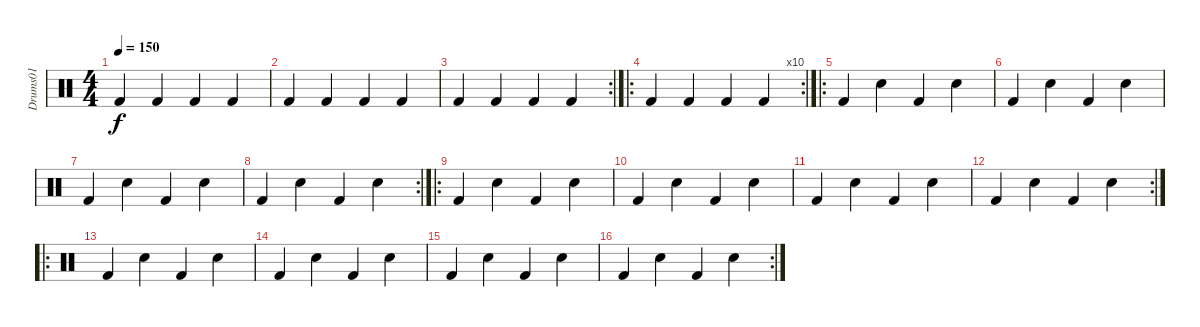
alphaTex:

\track ("Drums01" "Drums01") {instrument percussion}
\staff {score}
\articulation defaults
\ts (4 4)
\tempo 150
\clef neutral
\ks c "Kick (hit) 2".4{dy f} "Kick (hit) 2".4 "Kick (hit) 2".4 "Kick (hit) 2".4
|
"Kick (hit) 2".4 "Kick (hit) 2".4 "Kick (hit) 2".4 "Kick (hit) 2".4 |
\rc 2 "Kick (hit) 2".4 "Kick (hit) 2".4 "Kick (hit) 2".4 "Kick (hit) 2".4
|
\ro
\rc 10 "Kick (hit) 2".4 "Kick (hit) 2".4 "Kick (hit) 2".4 "Kick (hit) 2".4
|
\ro "Kick (hit) 2".4 "Snare (hit) 2".4 "Kick (hit) 2".4 "Snare (hit) 2".4
|
"Kick (hit) 2".4 "Snare (hit) 2".4 "Kick (hit) 2".4 "Snare (hit) 2".4 |
"Kick (hit) 2".4 "Snare (hit) 2".4 "Kick (hit) 2".4 "Snare (hit) 2".4 |
\rc 2 "Kick (hit) 2".4 "Snare (hit) 2".4 "Kick (hit) 2".4 "Snare (hit) 2".4
|
\ro "Kick (hit) 2".4 "Snare (hit) 2".4 "Kick (hit) 2".4 "Snare (hit) 2".4
|
"Kick (hit) 2".4 "Snare (hit) 2".4 "Kick (hit) 2".4 "Snare (hit) 2".4 |
"Kick (hit) 2".4 "Snare (hit) 2".4 "Kick (hit) 2".4 "Snare (hit) 2".4 |
\rc 2 "Kick (hit) 2".4 "Snare (hit) 2".4 "Kick (hit) 2".4 "Snare (hit) 2".4
|
\ro "Kick (hit) 2".4 "Snare (hit) 2".4 "Kick (hit) 2".4 "Snare (hit) 2".4
|
"Kick (hit) 2".4 "Snare (hit) 2".4 "Kick (hit) 2".4 "Snare (hit) 2".4 |
"Kick (hit) 2".4 "Snare (hit) 2".4 "Kick (hit) 2".4 "Snare (hit) 2".4 |
\rc 2 "Kick (hit) 2".4 "Snare (hit) 2".4 "Kick (hit) 2".4 "Snare (hit) 2".4
